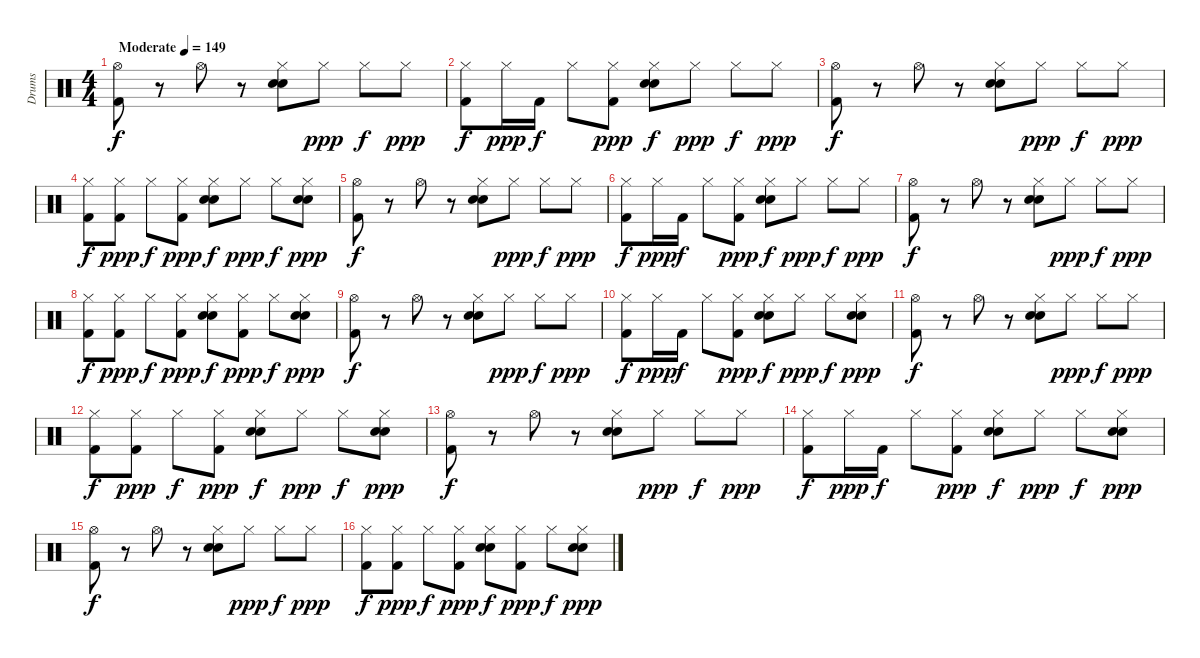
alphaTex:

\track ("Drums" "Drums") {instrument percussion}
\staff {score}
\articulation defaults
\ts (4 4)
\tempo (149 "Moderate")
\clef neutral
\ks c
("Kick (hit) 2" "Hi-Hat (open)").8{dy f} r.8 "Hi-Hat (open)".8 r.8 ("Electric Snare (hit)" "Snare (hit) 2" "Hi-Hat (closed)").8 "Hi-Hat (closed)".8{dy ppp} "Hi-Hat (closed)".8{dy f} "Hi-Hat (closed)".8{dy ppp} |
("Kick (hit) 2" "Hi-Hat (closed)").8{dy f} "Hi-Hat (closed)".16{dy ppp} "Kick (hit) 2".16{dy f} "Hi-Hat (closed)".8 ("Kick (hit) 2" "Hi-Hat (closed)").8{dy ppp} ("Electric Snare (hit)" "Snare (hit) 2" "Hi-Hat (closed)").8{dy f} "Hi-Hat (closed)".8{dy ppp} "Hi-Hat (closed)".8{dy f} "Hi-Hat (closed)".8{dy ppp} |
("Kick (hit) 2" "Hi-Hat (open)").8{dy f} r.8 "Hi-Hat (open)".8 r.8 ("Electric Snare (hit)" "Snare (hit) 2" "Hi-Hat (closed)").8 "Hi-Hat (closed)".8{dy ppp} "Hi-Hat (closed)".8{dy f} "Hi-Hat (closed)".8{dy ppp} |
("Kick (hit) 2" "Hi-Hat (closed)").8{dy f} ("Kick (hit) 2" "Hi-Hat (closed)").8{dy ppp} "Hi-Hat (closed)".8{dy f} ("Kick (hit) 2" "Hi-Hat (closed)").8{dy ppp} ("Electric Snare (hit)" "Snare (hit) 2" "Hi-Hat (closed)").8{dy f} "Hi-Hat (closed)".8{dy ppp} "Hi-Hat (closed)".8{dy f} ("Electric Snare (hit)" "Snare (hit) 2" "Hi-Hat (closed)").8{dy ppp} |
("Kick (hit) 2" "Hi-Hat (open)").8{dy f} r.8 "Hi-Hat (open)".8 r.8 ("Electric Snare (hit)" "Snare (hit) 2" "Hi-Hat (closed)").8 "Hi-Hat (closed)".8{dy ppp} "Hi-Hat (closed)".8{dy f} "Hi-Hat (closed)".8{dy ppp} |
("Kick (hit) 2" "Hi-Hat (closed)").8{dy f} "Hi-Hat (closed)".16{dy ppp} "Kick (hit) 2".16{dy f} "Hi-Hat (closed)".8 ("Kick (hit) 2" "Hi-Hat (closed)").8{dy ppp} ("Electric Snare (hit)" "Snare (hit) 2" "Hi-Hat (closed)").8{dy f} "Hi-Hat (closed)".8{dy ppp} "Hi-Hat (closed)".8{dy f} "Hi-Hat (closed)".8{dy ppp} |
("Kick (hit) 2" "Hi-Hat (open)").8{dy f} r.8 "Hi-Hat (open)".8 r.8 ("Electric Snare (hit)" "Snare (hit) 2" "Hi-Hat (closed)").8 "Hi-Hat (closed)".8{dy ppp} "Hi-Hat (closed)".8{dy f} "Hi-Hat (closed)".8{dy ppp} |
("Kick (hit) 2" "Hi-Hat (closed)").8{dy f} ("Kick (hit) 2" "Hi-Hat (closed)").8{dy ppp} "Hi-Hat (closed)".8{dy f} ("Kick (hit) 2" "Hi-Hat (closed)").8{dy ppp} ("Electric Snare (hit)" "Snare (hit) 2" "Hi-Hat (closed)").8{dy f} ("Kick (hit) 2" "Hi-Hat (closed)").8{dy ppp} "Hi-Hat (closed)".8{dy f} ("Electric Snare (hit)" "Snare (hit) 2" "Hi-Hat (closed)").8{dy ppp} |
("Kick (hit) 2" "Hi-Hat (open)").8{dy f} r.8 "Hi-Hat (open)".8 r.8 ("Electric Snare (hit)" "Snare (hit) 2" "Hi-Hat (closed)").8 "Hi-Hat (closed)".8{dy ppp} "Hi-Hat (closed)".8{dy f} "Hi-Hat (closed)".8{dy ppp} |
("Kick (hit) 2" "Hi-Hat (closed)").8{dy f} "Hi-Hat (closed)".16{dy ppp} "Kick (hit) 2".16{dy f} "Hi-Hat (closed)".8 ("Kick (hit) 2" "Hi-Hat (closed)").8{dy ppp} ("Electric Snare (hit)" "Snare (hit) 2" "Hi-Hat (closed)").8{dy f} "Hi-Hat (closed)".8{dy ppp} "Hi-Hat (closed)".8{dy f} ("Electric Snare (hit)" "Snare (hit) 2" "Hi-Hat (closed)").8{dy ppp} |
("Kick (hit) 2" "Hi-Hat (open)").8{dy f} r.8 "Hi-Hat (open)".8 r.8 ("Electric Snare (hit)" "Snare (hit) 2" "Hi-Hat (closed)").8 "Hi-Hat (closed)".8{dy ppp} "Hi-Hat (closed)".8{dy f} "Hi-Hat (closed)".8{dy ppp} |
("Kick (hit) 2" "Hi-Hat (closed)").8{dy f} ("Kick (hit) 2" "Hi-Hat (closed)").8{dy ppp} "Hi-Hat (closed)".8{dy f} ("Kick (hit) 2" "Hi-Hat (closed)").8{dy ppp} ("Electric Snare (hit)" "Snare (hit) 2" "Hi-Hat (closed)").8{dy f} "Hi-Hat (closed)".8{dy ppp} "Hi-Hat (closed)".8{dy f} ("Electric Snare (hit)" "Snare (hit) 2" "Hi-Hat (closed)").8{dy ppp} |
("Kick (hit) 2" "Hi-Hat (open)").8{dy f} r.8 "Hi-Hat (open)".8 r.8 ("Electric Snare (hit)" "Snare (hit) 2" "Hi-Hat (closed)").8 "Hi-Hat (closed)".8{dy ppp} "Hi-Hat (closed)".8{dy f} "Hi-Hat (closed)".8{dy ppp} |
("Kick (hit) 2" "Hi-Hat (closed)").8{dy f} "Hi-Hat (closed)".16{dy ppp} "Kick (hit) 2".16{dy f} "Hi-Hat (closed)".8 ("Kick (hit) 2" "Hi-Hat (closed)").8{dy ppp} ("Electric Snare (hit)" "Snare (hit) 2" "Hi-Hat (closed)").8{dy f} "Hi-Hat (closed)".8{dy ppp} "Hi-Hat (closed)".8{dy f} ("Electric Snare (hit)" "Snare (hit) 2" "Hi-Hat (closed)").8{dy ppp} |
("Kick (hit) 2" "Hi-Hat (open)").8{dy f} r.8 "Hi-Hat (open)".8 r.8 ("Electric Snare (hit)" "Snare (hit) 2" "Hi-Hat (closed)").8 "Hi-Hat (closed)".8{dy ppp} "Hi-Hat (closed)".8{dy f} "Hi-Hat (closed)".8{dy ppp} |
("Kick (hit) 2" "Hi-Hat (closed)").8{dy f} ("Kick (hit) 2" "Hi-Hat (closed)").8{dy ppp} "Hi-Hat (closed)".8{dy f} ("Kick (hit) 2" "Hi-Hat (closed)").8{dy ppp} ("Electric Snare (hit)" "Snare (hit) 2" "Hi-Hat (closed)").8{dy f} ("Kick (hit) 2" "Hi-Hat (closed)").8{dy ppp} "Hi-Hat (closed)".8{dy f} ("Electric Snare (hit)" "Snare (hit) 2" "Hi-Hat (closed)").8{dy ppp}
